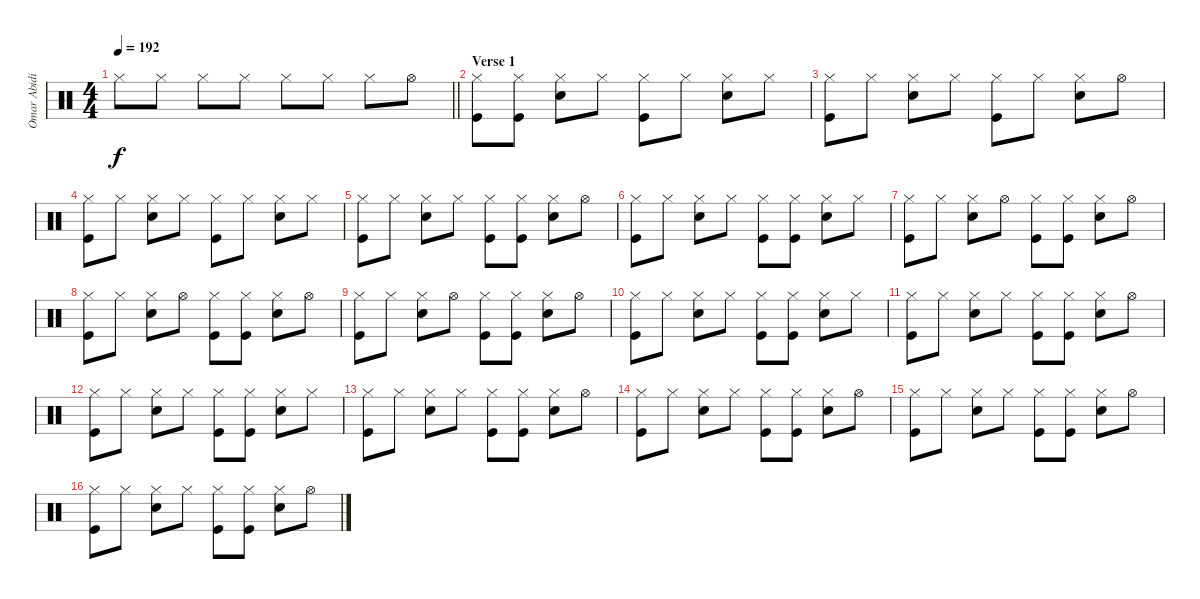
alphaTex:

\track ("Omar Abidi" "Omar Abidi") {instrument percussion}
\staff {score}
\articulation defaults
\ts (4 4)
\tempo 192
\clef neutral
\barLineRight lightlight
\ks c "Hi-Hat (closed)".8{dy f} "Hi-Hat (closed)".8 "Hi-Hat (closed)".8 "Hi-Hat (closed)".8 "Hi-Hat (closed)".8 "Hi-Hat (closed)".8 "Hi-Hat (closed)".8 "Hi-Hat (open)".8
|
\section ("" "Verse 1")
("Hi-Hat (closed)" "Kick (hit)").8 ("Hi-Hat (closed)" "Kick (hit)").8 ("Hi-Hat (closed)" "Electric Snare (hit)").8 "Hi-Hat (closed)".8 ("Hi-Hat (closed)" "Kick (hit)").8 "Hi-Hat (closed)".8 ("Hi-Hat (closed)" "Electric Snare (hit)").8 "Hi-Hat (closed)".8 |
("Hi-Hat (closed)" "Kick (hit)").8 "Hi-Hat (closed)".8 ("Hi-Hat (closed)" "Electric Snare (hit)").8 "Hi-Hat (closed)".8 ("Hi-Hat (closed)" "Kick (hit)").8 "Hi-Hat (closed)".8 ("Hi-Hat (closed)" "Electric Snare (hit)").8 "Hi-Hat (open)".8 |
("Hi-Hat (closed)" "Kick (hit)").8 "Hi-Hat (closed)".8 ("Hi-Hat (closed)" "Electric Snare (hit)").8 "Hi-Hat (closed)".8 ("Hi-Hat (closed)" "Kick (hit)").8 "Hi-Hat (closed)".8 ("Hi-Hat (closed)" "Electric Snare (hit)").8 "Hi-Hat (closed)".8 |
("Hi-Hat (closed)" "Kick (hit)").8 "Hi-Hat (closed)".8 ("Hi-Hat (closed)" "Electric Snare (hit)").8 "Hi-Hat (closed)".8 ("Hi-Hat (closed)" "Kick (hit)").8 ("Hi-Hat (closed)" "Kick (hit)").8 ("Hi-Hat (closed)" "Electric Snare (hit)").8 "Hi-Hat (open)".8 |
("Hi-Hat (closed)" "Kick (hit)").8 "Hi-Hat (closed)".8 ("Hi-Hat (closed)" "Electric Snare (hit)").8 "Hi-Hat (closed)".8 ("Hi-Hat (closed)" "Kick (hit)").8 ("Hi-Hat (closed)" "Kick (hit)").8 ("Hi-Hat (closed)" "Electric Snare (hit)").8 "Hi-Hat (closed)".8 |
("Hi-Hat (closed)" "Kick (hit)").8 "Hi-Hat (closed)".8 ("Hi-Hat (closed)" "Electric Snare (hit)").8 "Hi-Hat (open)".8 ("Hi-Hat (closed)" "Kick (hit)").8 ("Hi-Hat (closed)" "Kick (hit)").8 ("Hi-Hat (closed)" "Electric Snare (hit)").8 "Hi-Hat (open)".8 |
("Hi-Hat (closed)" "Kick (hit)").8 "Hi-Hat (closed)".8 ("Hi-Hat (closed)" "Electric Snare (hit)").8 "Hi-Hat (open)".8 ("Hi-Hat (closed)" "Kick (hit)").8 ("Hi-Hat (closed)" "Kick (hit)").8 ("Hi-Hat (closed)" "Electric Snare (hit)").8 "Hi-Hat (open)".8 |
("Hi-Hat (closed)" "Kick (hit)").8 "Hi-Hat (closed)".8 ("Hi-Hat (closed)" "Electric Snare (hit)").8 "Hi-Hat (open)".8 ("Hi-Hat (closed)" "Kick (hit)").8 ("Hi-Hat (closed)" "Kick (hit)").8 ("Hi-Hat (closed)" "Electric Snare (hit)").8 "Hi-Hat (open)".8 |
("Hi-Hat (closed)" "Kick (hit)").8 "Hi-Hat (closed)".8 ("Hi-Hat (closed)" "Electric Snare (hit)").8 "Hi-Hat (closed)".8 ("Hi-Hat (closed)" "Kick (hit)").8 ("Hi-Hat (closed)" "Kick (hit)").8 ("Hi-Hat (closed)" "Electric Snare (hit)").8 "Hi-Hat (closed)".8 |
("Hi-Hat (closed)" "Kick (hit)").8 "Hi-Hat (closed)".8 ("Hi-Hat (closed)" "Electric Snare (hit)").8 "Hi-Hat (closed)".8 ("Hi-Hat (closed)" "Kick (hit)").8 ("Hi-Hat (closed)" "Kick (hit)").8 ("Hi-Hat (closed)" "Electric Snare (hit)").8 "Hi-Hat (open)".8 |
("Hi-Hat (closed)" "Kick (hit)").8 "Hi-Hat (closed)".8 ("Hi-Hat (closed)" "Electric Snare (hit)").8 "Hi-Hat (closed)".8 ("Hi-Hat (closed)" "Kick (hit)").8 ("Hi-Hat (closed)" "Kick (hit)").8 ("Hi-Hat (closed)" "Electric Snare (hit)").8 "Hi-Hat (closed)".8 |
("Hi-Hat (closed)" "Kick (hit)").8 "Hi-Hat (closed)".8 ("Hi-Hat (closed)" "Electric Snare (hit)").8 "Hi-Hat (closed)".8 ("Hi-Hat (closed)" "Kick (hit)").8 ("Hi-Hat (closed)" "Kick (hit)").8 ("Hi-Hat (closed)" "Electric Snare (hit)").8 "Hi-Hat (open)".8 |
("Hi-Hat (closed)" "Kick (hit)").8 "Hi-Hat (closed)".8 ("Hi-Hat (closed)" "Electric Snare (hit)").8 "Hi-Hat (closed)".8 ("Hi-Hat (closed)" "Kick (hit)").8 ("Hi-Hat (closed)" "Kick (hit)").8 ("Hi-Hat (closed)" "Electric Snare (hit)").8 "Hi-Hat (open)".8 |
("Hi-Hat (closed)" "Kick (hit)").8 "Hi-Hat (closed)".8 ("Hi-Hat (closed)" "Electric Snare (hit)").8 "Hi-Hat (closed)".8 ("Hi-Hat (closed)" "Kick (hit)").8 ("Hi-Hat (closed)" "Kick (hit)").8 ("Hi-Hat (closed)" "Electric Snare (hit)").8 "Hi-Hat (open)".8 |
("Hi-Hat (closed)" "Kick (hit)").8 "Hi-Hat (closed)".8 ("Hi-Hat (closed)" "Electric Snare (hit)").8 "Hi-Hat (closed)".8 ("Hi-Hat (closed)" "Kick (hit)").8 ("Hi-Hat (closed)" "Kick (hit)").8 ("Hi-Hat (closed)" "Electric Snare (hit)").8 "Hi-Hat (open)".8
